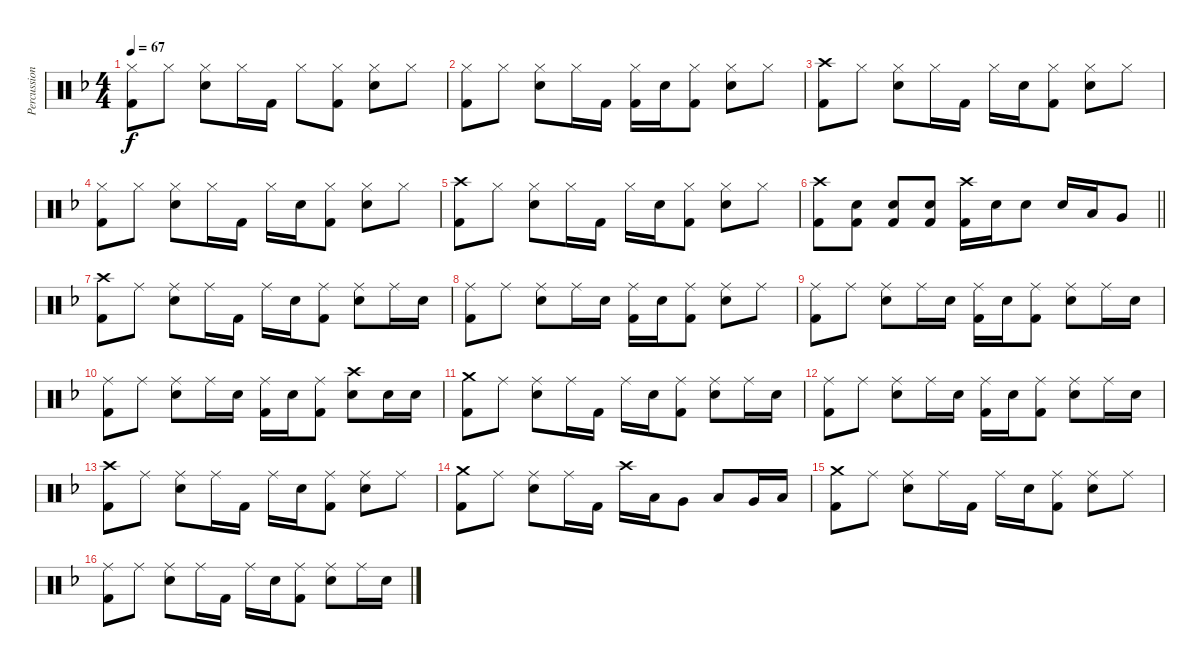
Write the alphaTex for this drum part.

\track ("Percussion" "Percussion") {instrument percussion}
\staff {score}
\articulation defaults
\ts (4 4)
\tempo 67
\clef neutral
\ks f
("Hi-Hat (closed)" "Kick (hit) 2").8{dy f} "Hi-Hat (closed)".8 ("Hi-Hat (closed)" "Electric Snare (hit)").8 "Hi-Hat (closed)".16 "Kick (hit) 2".16 "Hi-Hat (closed)".8 ("Hi-Hat (closed)" "Kick (hit) 2").8 ("Hi-Hat (closed)" "Electric Snare (hit)").8 "Hi-Hat (closed)".8 |
("Hi-Hat (closed)" "Kick (hit) 2").8 "Hi-Hat (closed)".8 ("Hi-Hat (closed)" "Electric Snare (hit)").8 "Hi-Hat (closed)".16 "Kick (hit) 2".16 ("Hi-Hat (closed)" "Kick (hit) 2").16 "Electric Snare (hit)".16 ("Hi-Hat (closed)" "Kick (hit) 2").8 ("Hi-Hat (closed)" "Electric Snare (hit)").8 "Hi-Hat (closed)".8 |
("Crash high (hit)" "Kick (hit) 2").8 "Hi-Hat (closed)".8 ("Hi-Hat (closed)" "Electric Snare (hit)").8 "Hi-Hat (closed)".16 "Kick (hit) 2".16 "Hi-Hat (closed)".16 "Electric Snare (hit)".16 ("Hi-Hat (closed)" "Kick (hit) 2").8 ("Hi-Hat (closed)" "Electric Snare (hit)").8 "Hi-Hat (closed)".8 |
("Hi-Hat (closed)" "Kick (hit) 2").8 "Hi-Hat (closed)".8 ("Hi-Hat (closed)" "Electric Snare (hit)").8 "Hi-Hat (closed)".16 "Kick (hit) 2".16 "Hi-Hat (closed)".16 "Electric Snare (hit)".16 ("Hi-Hat (closed)" "Kick (hit) 2").8 ("Hi-Hat (closed)" "Electric Snare (hit)").8 "Hi-Hat (closed)".8 |
("Crash high (hit)" "Kick (hit) 2").8 "Hi-Hat (closed)".8 ("Hi-Hat (closed)" "Electric Snare (hit)").8 "Hi-Hat (closed)".16 "Kick (hit) 2".16 "Hi-Hat (closed)".16 "Electric Snare (hit)".16 ("Hi-Hat (closed)" "Kick (hit) 2").8 ("Hi-Hat (closed)" "Electric Snare (hit)").8 "Hi-Hat (closed)".8 |
\barLineRight lightlight
("Crash high (hit)" "Kick (hit) 2").8 ("Electric Snare (hit)" "Kick (hit) 2").8 ("Electric Snare (hit)" "Kick (hit) 2").8 ("Electric Snare (hit)" "Kick (hit) 2").8 ("Crash high (hit)" "Kick (hit) 2").16 "Electric Snare (hit)".16 "Electric Snare (hit)".8 "Electric Snare (hit)".16 "Low Tom (hit)".16 "Very Low Tom (hit)".8 |
\section ("" "")
("Crash high (hit)" "Kick (hit) 2").8 "Ride (middle)".8 ("Ride (middle)" "Electric Snare (hit)").8 "Ride (middle)".16 "Kick (hit) 2".16 "Ride (middle)".16 "Electric Snare (hit)".16 ("Ride (middle)" "Kick (hit) 2").8 ("Ride (middle)" "Electric Snare (hit)").8 "Ride (middle)".16 "Electric Snare (hit)".16 |
("Ride (middle)" "Kick (hit) 2").8 "Ride (middle)".8 ("Ride (middle)" "Electric Snare (hit)").8 "Ride (middle)".16 "Electric Snare (hit)".16 ("Ride (middle)" "Kick (hit) 2").16 "Electric Snare (hit)".16 ("Ride (middle)" "Kick (hit) 2").8 ("Ride (middle)" "Electric Snare (hit)").8 "Ride (middle)".8 |
("Ride (middle)" "Kick (hit) 2").8 "Ride (middle)".8 ("Ride (middle)" "Electric Snare (hit)").8 "Ride (middle)".16 "Electric Snare (hit)".16 ("Ride (middle)" "Kick (hit) 2").16 "Electric Snare (hit)".16 ("Ride (middle)" "Kick (hit) 2").8 ("Ride (middle)" "Electric Snare (hit)").8 "Ride (middle)".16 "Electric Snare (hit)".16 |
("Ride (middle)" "Kick (hit) 2").8 "Ride (middle)".8 ("Ride (middle)" "Electric Snare (hit)").8 "Ride (middle)".16 "Electric Snare (hit)".16 ("Ride (middle)" "Kick (hit) 2").16 "Electric Snare (hit)".16 ("Ride (middle)" "Kick (hit) 2").8 ("Crash high (hit)" "Electric Snare (hit)").8 "Electric Snare (hit)".16 "Electric Snare (hit)".16 |
("Crash medium (hit)" "Kick (hit) 2").8 "Ride (middle)".8 ("Ride (middle)" "Electric Snare (hit)").8 "Ride (middle)".16 "Kick (hit) 2".16 "Ride (middle)".16 "Electric Snare (hit)".16 ("Ride (middle)" "Kick (hit) 2").8 ("Ride (middle)" "Electric Snare (hit)").8 "Ride (middle)".16 "Electric Snare (hit)".16 |
("Ride (middle)" "Kick (hit) 2").8 "Ride (middle)".8 ("Ride (middle)" "Electric Snare (hit)").8 "Ride (middle)".16 "Electric Snare (hit)".16 ("Ride (middle)" "Kick (hit) 2").16 "Electric Snare (hit)".16 ("Ride (middle)" "Kick (hit) 2").8 ("Ride (middle)" "Electric Snare (hit)").8 "Ride (middle)".16 "Electric Snare (hit)".16 |
("Crash high (hit)" "Kick (hit) 2").8 "Ride (middle)".8 ("Ride (middle)" "Electric Snare (hit)").8 "Ride (middle)".16 "Kick (hit) 2".16 "Ride (middle)".16 "Electric Snare (hit)".16 ("Ride (middle)" "Kick (hit) 2").8 ("Ride (middle)" "Electric Snare (hit)").8 "Ride (middle)".8 |
("Crash medium (hit)" "Kick (hit) 2").8 "Ride (middle)".8 ("Ride (middle)" "Electric Snare (hit)").8 "Ride (middle)".16 "Kick (hit) 2".16 "Crash high (hit)".16 "Low Tom (hit)".16 "Very Low Tom (hit)".8 "Low Tom (hit)".8 "Very Low Tom (hit)".16 "Low Floor Tom (hit)".16 |
("Crash medium (hit)" "Kick (hit) 2").8 "Ride (middle)".8 ("Ride (middle)" "Snare (hit) 2").8 "Ride (middle)".16 "Kick (hit) 2".16 "Ride (middle)".16 "Electric Snare (hit)".16 ("Ride (middle)" "Kick (hit) 2").8 ("Ride (middle)" "Electric Snare (hit)").8 "Ride (middle)".8 |
("Ride (middle)" "Kick (hit) 2").8 "Ride (middle)".8 ("Ride (middle)" "Snare (hit) 2").8 "Ride (middle)".16 "Kick (hit) 2".16 "Ride (middle)".16 "Electric Snare (hit)".16 ("Ride (middle)" "Kick (hit) 2").8 ("Ride (middle)" "Electric Snare (hit)").8 "Ride (middle)".16 "Electric Snare (hit)".16
